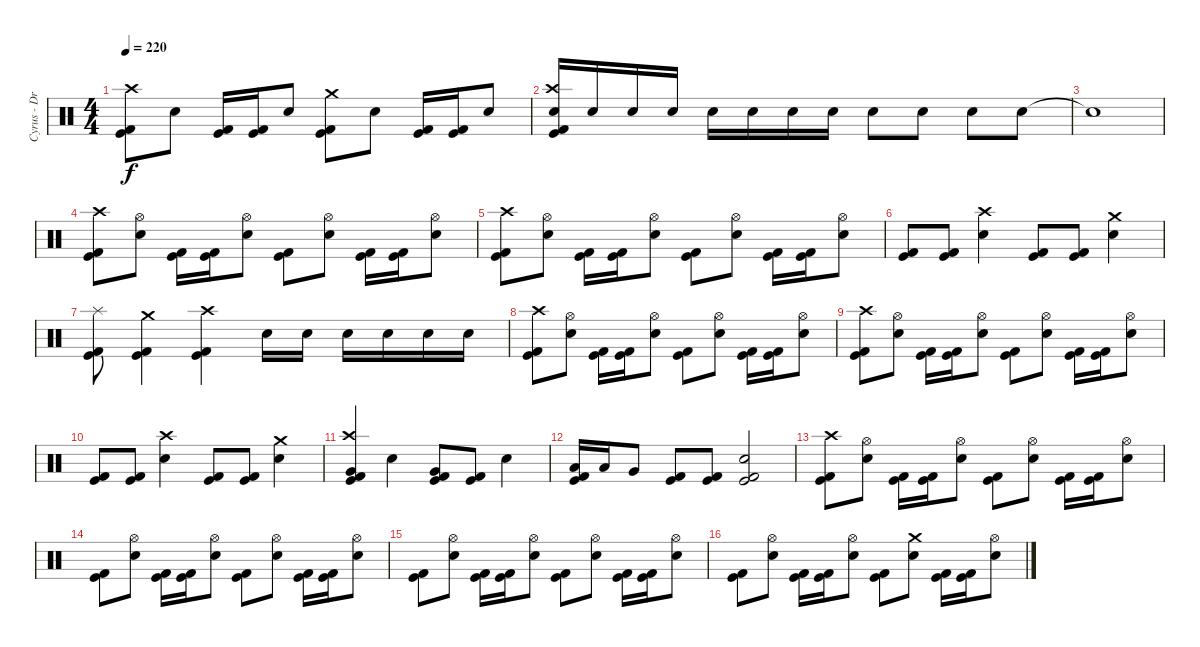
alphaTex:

\track ("Cyrus - Drums" "Cyrus - Dr") {instrument percussion}
\staff {score}
\articulation defaults
\ts (4 4)
\tempo 220
\clef neutral
\ks c
("Kick (hit)" "Kick (hit) 2" "Crash high (hit)").8{dy f} "Electric Snare (hit)".8 ("Kick (hit)" "Kick (hit) 2").16 ("Kick (hit)" "Kick (hit) 2").16 "Electric Snare (hit)".8 ("Kick (hit)" "Kick (hit) 2" "Crash medium (hit)").8 "Electric Snare (hit)".8 ("Kick (hit)" "Kick (hit) 2").16 ("Kick (hit)" "Kick (hit) 2").16 "Electric Snare (hit)".8 |
("Kick (hit)" "Kick (hit) 2" "Electric Snare (hit)" "Crash high (hit)").16 "Electric Snare (hit)".16 "Electric Snare (hit)".16 "Electric Snare (hit)".16 "Electric Snare (hit)".16 "Electric Snare (hit)".16 "Electric Snare (hit)".16 "Electric Snare (hit)".16 "Electric Snare (hit)".8 "Electric Snare (hit)".8 "Electric Snare (hit)".8 "Electric Snare (hit)".8 |
"Snare (hit)"{t}.1 |
("Kick (hit)" "Kick (hit) 2" "Crash high (hit)").8 ("Electric Snare (hit)" "Hi-Hat (open)").8 ("Kick (hit)" "Kick (hit) 2").16 ("Kick (hit)" "Kick (hit) 2").16 ("Electric Snare (hit)" "Hi-Hat (open)").8 ("Kick (hit)" "Kick (hit) 2").8 ("Electric Snare (hit)" "Hi-Hat (open)").8 ("Kick (hit)" "Kick (hit) 2").16 ("Kick (hit)" "Kick (hit) 2").16 ("Electric Snare (hit)" "Hi-Hat (open)").8 |
("Kick (hit)" "Kick (hit) 2" "Crash high (hit)").8 ("Electric Snare (hit)" "Hi-Hat (open)").8 ("Kick (hit)" "Kick (hit) 2").16 ("Kick (hit)" "Kick (hit) 2").16 ("Electric Snare (hit)" "Hi-Hat (open)").8 ("Kick (hit)" "Kick (hit) 2").8 ("Electric Snare (hit)" "Hi-Hat (open)").8 ("Kick (hit)" "Kick (hit) 2").16 ("Kick (hit)" "Kick (hit) 2").16 ("Electric Snare (hit)" "Hi-Hat (open)").8 |
("Kick (hit)" "Kick (hit) 2").8 ("Kick (hit)" "Kick (hit) 2").8 ("Electric Snare (hit)" "Crash high (hit)").4 ("Kick (hit)" "Kick (hit) 2").8 ("Kick (hit)" "Kick (hit) 2").8 ("Electric Snare (hit)" "Crash medium (hit)").4 |
("Kick (hit)" "Kick (hit) 2" "Splash (hit)").8 ("Kick (hit)" "Kick (hit) 2" "Crash medium (hit)").4 ("Kick (hit)" "Kick (hit) 2" "Crash high (hit)").4 "Electric Snare (hit)".16 "Electric Snare (hit)".16 "Electric Snare (hit)".16 "Electric Snare (hit)".16 "Electric Snare (hit)".16 "Electric Snare (hit)".16 |
("Kick (hit)" "Kick (hit) 2" "Crash high (hit)").8 ("Electric Snare (hit)" "Hi-Hat (open)").8 ("Kick (hit)" "Kick (hit) 2").16 ("Kick (hit)" "Kick (hit) 2").16 ("Electric Snare (hit)" "Hi-Hat (open)").8 ("Kick (hit)" "Kick (hit) 2").8 ("Electric Snare (hit)" "Hi-Hat (open)").8 ("Kick (hit)" "Kick (hit) 2").16 ("Kick (hit)" "Kick (hit) 2").16 ("Electric Snare (hit)" "Hi-Hat (open)").8 |
("Kick (hit)" "Kick (hit) 2" "Crash high (hit)").8 ("Electric Snare (hit)" "Hi-Hat (open)").8 ("Kick (hit)" "Kick (hit) 2").16 ("Kick (hit)" "Kick (hit) 2").16 ("Electric Snare (hit)" "Hi-Hat (open)").8 ("Kick (hit)" "Kick (hit) 2").8 ("Electric Snare (hit)" "Hi-Hat (open)").8 ("Kick (hit)" "Kick (hit) 2").16 ("Kick (hit)" "Kick (hit) 2").16 ("Electric Snare (hit)" "Hi-Hat (open)").8 |
("Kick (hit)" "Kick (hit) 2").8 ("Kick (hit)" "Kick (hit) 2").8 ("Electric Snare (hit)" "Crash high (hit)").4 ("Kick (hit)" "Kick (hit) 2").8 ("Kick (hit)" "Kick (hit) 2").8 ("Electric Snare (hit)" "Crash medium (hit)").4 |
("Kick (hit)" "Kick (hit) 2" "Very Low Tom (hit)" "Crash high (hit)").4 "Electric Snare (hit)".4 ("Kick (hit)" "Kick (hit) 2" "Very Low Tom (hit)").8 ("Kick (hit)" "Kick (hit) 2").8 "Electric Snare (hit)".4 |
("Kick (hit)" "Kick (hit) 2" "Low Tom (hit)").16 "Low Tom (hit)".16 "Very Low Tom (hit)".8 ("Kick (hit)" "Kick (hit) 2").8 ("Kick (hit)" "Kick (hit) 2").8 ("Kick (hit)" "Kick (hit) 2" "Electric Snare (hit)").2 |
("Kick (hit)" "Kick (hit) 2" "Crash high (hit)").8 ("Electric Snare (hit)" "Hi-Hat (open)").8 ("Kick (hit)" "Kick (hit) 2").16 ("Kick (hit)" "Kick (hit) 2").16 ("Electric Snare (hit)" "Hi-Hat (open)").8 ("Kick (hit)" "Kick (hit) 2").8 ("Electric Snare (hit)" "Hi-Hat (open)").8 ("Kick (hit)" "Kick (hit) 2").16 ("Kick (hit)" "Kick (hit) 2").16 ("Electric Snare (hit)" "Hi-Hat (open)").8 |
("Kick (hit)" "Kick (hit) 2").8 ("Electric Snare (hit)" "Hi-Hat (open)").8 ("Kick (hit)" "Kick (hit) 2").16 ("Kick (hit)" "Kick (hit) 2").16 ("Electric Snare (hit)" "Hi-Hat (open)").8 ("Kick (hit)" "Kick (hit) 2").8 ("Electric Snare (hit)" "Hi-Hat (open)").8 ("Kick (hit)" "Kick (hit) 2").16 ("Kick (hit)" "Kick (hit) 2").16 ("Electric Snare (hit)" "Hi-Hat (open)").8 |
("Kick (hit)" "Kick (hit) 2").8 ("Electric Snare (hit)" "Hi-Hat (open)").8 ("Kick (hit)" "Kick (hit) 2").16 ("Kick (hit)" "Kick (hit) 2").16 ("Electric Snare (hit)" "Hi-Hat (open)").8 ("Kick (hit)" "Kick (hit) 2").8 ("Electric Snare (hit)" "Hi-Hat (open)").8 ("Kick (hit)" "Kick (hit) 2").16 ("Kick (hit)" "Kick (hit) 2").16 ("Electric Snare (hit)" "Hi-Hat (open)").8 |
("Kick (hit)" "Kick (hit) 2").8 ("Electric Snare (hit)" "Hi-Hat (open)").8 ("Kick (hit)" "Kick (hit) 2").16 ("Kick (hit)" "Kick (hit) 2").16 ("Electric Snare (hit)" "Hi-Hat (open)").8 ("Kick (hit)" "Kick (hit) 2").8 ("Electric Snare (hit)" "Crash medium (hit)").8 ("Kick (hit)" "Kick (hit) 2").16 ("Kick (hit)" "Kick (hit) 2").16 ("Electric Snare (hit)" "Hi-Hat (open)").8
